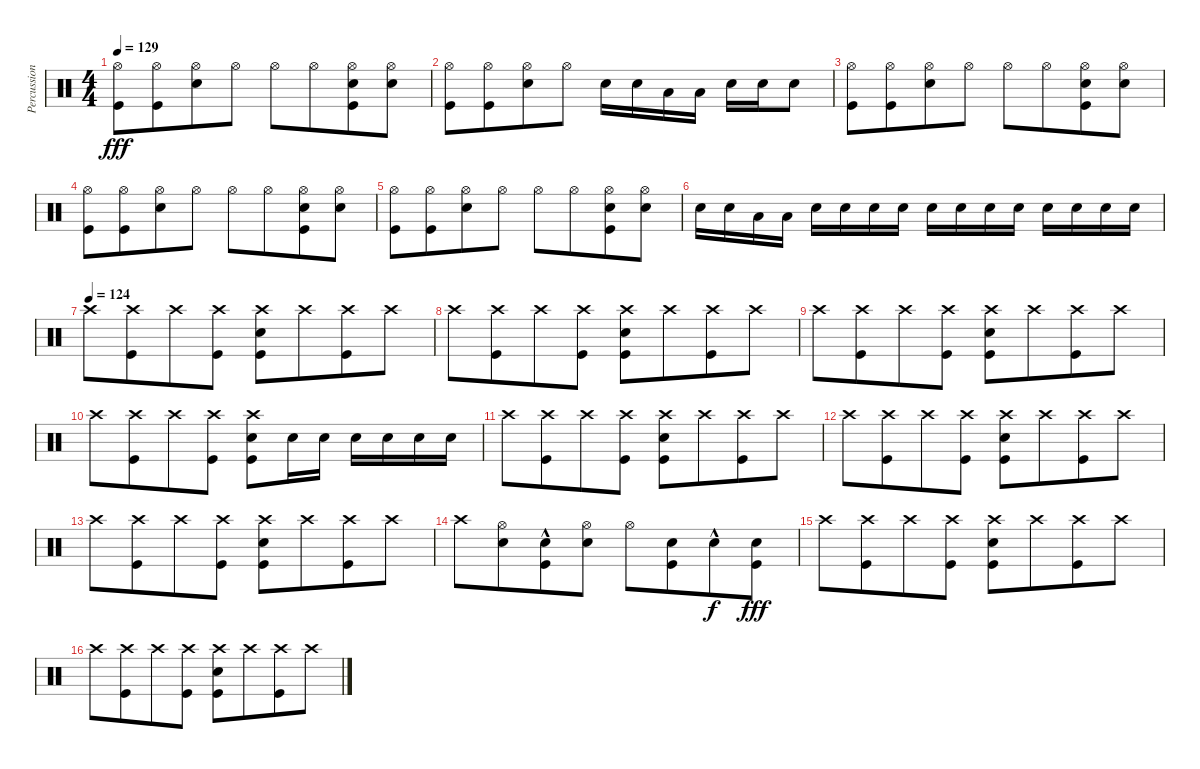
\track ("Percussion" "Percussion") {instrument percussion}
\staff {score}
\articulation defaults
\ts (4 4)
\tempo 129
\clef neutral
\ks c
("Hi-Hat (open)" "Kick (hit)").8{dy fff} ("Hi-Hat (open)" "Kick (hit)").8{beam merge} ("Hi-Hat (open)" "Snare (hit) 2").8 "Hi-Hat (open)".8 "Hi-Hat (open)".8 "Hi-Hat (open)".8{beam merge} ("Hi-Hat (open)" "Snare (hit) 2" "Kick (hit)").8 ("Hi-Hat (open)" "Snare (hit) 2").8 |
("Hi-Hat (open)" "Kick (hit)").8 ("Hi-Hat (open)" "Kick (hit)").8{beam merge} ("Hi-Hat (open)" "Snare (hit) 2").8 "Hi-Hat (open)".8 "Snare (hit) 2".16 "Snare (hit) 2".16 "Low Tom (hit)".16 "Low Tom (hit)".16 "Snare (hit) 2".16 "Snare (hit) 2".16 "Snare (hit) 2".8 |
("Hi-Hat (open)" "Kick (hit)").8 ("Hi-Hat (open)" "Kick (hit)").8{beam merge} ("Hi-Hat (open)" "Snare (hit) 2").8 "Hi-Hat (open)".8 "Hi-Hat (open)".8 "Hi-Hat (open)".8{beam merge} ("Hi-Hat (open)" "Snare (hit) 2" "Kick (hit)").8 ("Hi-Hat (open)" "Snare (hit) 2").8 |
("Hi-Hat (open)" "Kick (hit)").8 ("Hi-Hat (open)" "Kick (hit)").8{beam merge} ("Hi-Hat (open)" "Snare (hit) 2").8 "Hi-Hat (open)".8 "Hi-Hat (open)".8 "Hi-Hat (open)".8{beam merge} ("Hi-Hat (open)" "Snare (hit) 2" "Kick (hit)").8 ("Hi-Hat (open)" "Snare (hit) 2").8 |
("Hi-Hat (open)" "Kick (hit)").8 ("Hi-Hat (open)" "Kick (hit)").8{beam merge} ("Hi-Hat (open)" "Snare (hit) 2").8 "Hi-Hat (open)".8 "Hi-Hat (open)".8 "Hi-Hat (open)".8{beam merge} ("Hi-Hat (open)" "Snare (hit) 2" "Kick (hit)").8 ("Hi-Hat (open)" "Snare (hit) 2").8 |
"Snare (hit) 2".16 "Snare (hit) 2".16 "Low Tom (hit)".16 "Low Tom (hit)".16 "Snare (hit) 2".16 "Snare (hit) 2".16 "Snare (hit) 2".16 "Snare (hit) 2".16 "Snare (hit) 2".16 "Snare (hit) 2".16 "Snare (hit) 2".16 "Snare (hit) 2".16 "Snare (hit) 2".16 "Snare (hit) 2".16 "Snare (hit) 2".16 "Snare (hit) 2".16 |
\tempo (124)
"Crash high (hit)".8 ("Crash high (hit)" "Kick (hit)").8{beam merge} "Crash high (hit)".8 ("Crash high (hit)" "Kick (hit)").8 ("Crash high (hit)" "Snare (hit) 2" "Kick (hit)").8 "Crash high (hit)".8{beam merge} ("Crash high (hit)" "Kick (hit)").8 "Crash high (hit)".8 |
"Crash high (hit)".8 ("Crash high (hit)" "Kick (hit)").8{beam merge} "Crash high (hit)".8 ("Crash high (hit)" "Kick (hit)").8 ("Crash high (hit)" "Snare (hit) 2" "Kick (hit)").8 "Crash high (hit)".8{beam merge} ("Crash high (hit)" "Kick (hit)").8 "Crash high (hit)".8 |
"Crash high (hit)".8 ("Crash high (hit)" "Kick (hit)").8{beam merge} "Crash high (hit)".8 ("Crash high (hit)" "Kick (hit)").8 ("Crash high (hit)" "Snare (hit) 2" "Kick (hit)").8 "Crash high (hit)".8{beam merge} ("Crash high (hit)" "Kick (hit)").8 "Crash high (hit)".8 |
"Crash high (hit)".8 ("Crash high (hit)" "Kick (hit)").8{beam merge} "Crash high (hit)".8 ("Crash high (hit)" "Kick (hit)").8 ("Crash high (hit)" "Snare (hit) 2" "Kick (hit)").8 "Snare (hit) 2".16 "Snare (hit) 2".16 "Snare (hit) 2".16 "Snare (hit) 2".16 "Snare (hit) 2".16 "Snare (hit) 2".16 |
"Crash high (hit)".8 ("Crash high (hit)" "Kick (hit)").8{beam merge} "Crash high (hit)".8 ("Crash high (hit)" "Kick (hit)").8 ("Crash high (hit)" "Snare (hit) 2" "Kick (hit)").8 "Crash high (hit)".8{beam merge} ("Crash high (hit)" "Kick (hit)").8 "Crash high (hit)".8 |
"Crash high (hit)".8 ("Crash high (hit)" "Kick (hit)").8{beam merge} "Crash high (hit)".8 ("Crash high (hit)" "Kick (hit)").8 ("Crash high (hit)" "Snare (hit) 2" "Kick (hit)").8 "Crash high (hit)".8{beam merge} ("Crash high (hit)" "Kick (hit)").8 "Crash high (hit)".8 |
"Crash high (hit)".8 ("Crash high (hit)" "Kick (hit)").8{beam merge} "Crash high (hit)".8 ("Crash high (hit)" "Kick (hit)").8 ("Crash high (hit)" "Snare (hit) 2" "Kick (hit)").8 "Crash high (hit)".8{beam merge} ("Crash high (hit)" "Kick (hit)").8 "Crash high (hit)".8 |
"Crash high (hit)".8 ("Hi-Hat (open)" "Snare (hit) 2").8{beam merge} ("Snare (hit) 2" "Kick (hit)"{hac}).8 ("Hi-Hat (open)" "Snare (hit) 2").8 "Hi-Hat (open)".8 ("Snare (hit) 2" "Kick (hit)").8{beam merge} "Snare (hit) 2"{hac}.8{dy f} ("Snare (hit) 2" "Kick (hit)").8{dy fff} |
"Crash high (hit)".8 ("Crash high (hit)" "Kick (hit)").8{beam merge} "Crash high (hit)".8 ("Crash high (hit)" "Kick (hit)").8 ("Crash high (hit)" "Snare (hit) 2" "Kick (hit)").8 "Crash high (hit)".8{beam merge} ("Crash high (hit)" "Kick (hit)").8 "Crash high (hit)".8 |
"Crash high (hit)".8 ("Crash high (hit)" "Kick (hit)").8{beam merge} "Crash high (hit)".8 ("Crash high (hit)" "Kick (hit)").8 ("Crash high (hit)" "Snare (hit) 2" "Kick (hit)").8 "Crash high (hit)".8{beam merge} ("Crash high (hit)" "Kick (hit)").8 "Crash high (hit)".8
